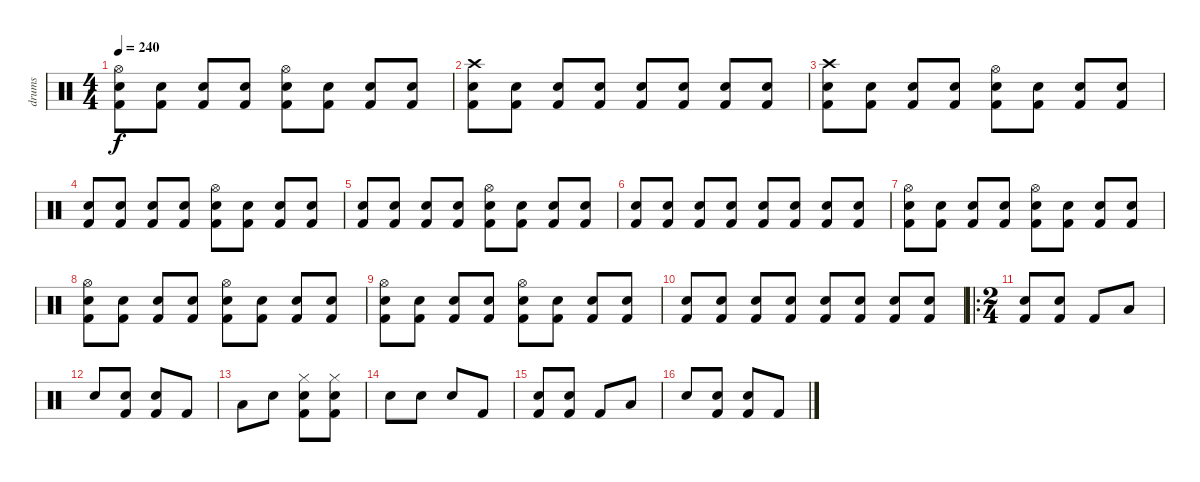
\track ("drums" "drums") {instrument percussion}
\staff {score}
\articulation defaults
\ts (4 4)
\tempo 240
\clef neutral
\ks c
("Hi-Hat (open)" "Snare (hit) 2" "Kick (hit) 2").8{dy f} ("Snare (hit) 2" "Kick (hit) 2").8 ("Snare (hit) 2" "Kick (hit) 2").8 ("Snare (hit) 2" "Kick (hit) 2").8 ("Hi-Hat (open)" "Snare (hit) 2" "Kick (hit) 2").8 ("Snare (hit) 2" "Kick (hit) 2").8 ("Snare (hit) 2" "Kick (hit) 2").8 ("Snare (hit) 2" "Kick (hit) 2").8 |
("Crash high (hit)" "Snare (hit) 2" "Kick (hit) 2").8 ("Electric Snare (hit)" "Kick (hit) 2").8 ("Electric Snare (hit)" "Kick (hit) 2").8 ("Electric Snare (hit)" "Kick (hit) 2").8 ("Electric Snare (hit)" "Kick (hit) 2").8 ("Electric Snare (hit)" "Kick (hit) 2").8 ("Electric Snare (hit)" "Kick (hit) 2").8 ("Electric Snare (hit)" "Kick (hit) 2").8 |
("Crash high (hit)" "Snare (hit) 2" "Kick (hit) 2").8 ("Snare (hit) 2" "Kick (hit) 2").8 ("Snare (hit) 2" "Kick (hit) 2").8 ("Snare (hit) 2" "Kick (hit) 2").8 ("Hi-Hat (open)" "Snare (hit) 2" "Kick (hit) 2").8 ("Snare (hit) 2" "Kick (hit) 2").8 ("Snare (hit) 2" "Kick (hit) 2").8 ("Snare (hit) 2" "Kick (hit) 2").8 |
("Snare (hit) 2" "Kick (hit) 2").8 ("Snare (hit) 2" "Kick (hit) 2").8 ("Snare (hit) 2" "Kick (hit) 2").8 ("Snare (hit) 2" "Kick (hit) 2").8 ("Hi-Hat (open)" "Snare (hit) 2" "Kick (hit) 2").8 ("Snare (hit) 2" "Kick (hit) 2").8 ("Snare (hit) 2" "Kick (hit) 2").8 ("Snare (hit) 2" "Kick (hit) 2").8 |
("Snare (hit) 2" "Kick (hit) 2").8 ("Snare (hit) 2" "Kick (hit) 2").8 ("Snare (hit) 2" "Kick (hit) 2").8 ("Snare (hit) 2" "Kick (hit) 2").8 ("Hi-Hat (open)" "Snare (hit) 2" "Kick (hit) 2").8 ("Snare (hit) 2" "Kick (hit) 2").8 ("Snare (hit) 2" "Kick (hit) 2").8 ("Snare (hit) 2" "Kick (hit) 2").8 |
("Snare (hit) 2" "Kick (hit) 2").8 ("Electric Snare (hit)" "Kick (hit) 2").8 ("Electric Snare (hit)" "Kick (hit) 2").8 ("Electric Snare (hit)" "Kick (hit) 2").8 ("Electric Snare (hit)" "Kick (hit) 2").8 ("Electric Snare (hit)" "Kick (hit) 2").8 ("Electric Snare (hit)" "Kick (hit) 2").8 ("Electric Snare (hit)" "Kick (hit) 2").8 |
("Hi-Hat (open)" "Snare (hit) 2" "Kick (hit) 2").8 ("Snare (hit) 2" "Kick (hit) 2").8 ("Snare (hit) 2" "Kick (hit) 2").8 ("Snare (hit) 2" "Kick (hit) 2").8 ("Hi-Hat (open)" "Snare (hit) 2" "Kick (hit) 2").8 ("Snare (hit) 2" "Kick (hit) 2").8 ("Snare (hit) 2" "Kick (hit) 2").8 ("Snare (hit) 2" "Kick (hit) 2").8 |
("Hi-Hat (open)" "Snare (hit) 2" "Kick (hit) 2").8 ("Snare (hit) 2" "Kick (hit) 2").8 ("Snare (hit) 2" "Kick (hit) 2").8 ("Snare (hit) 2" "Kick (hit) 2").8 ("Hi-Hat (open)" "Snare (hit) 2" "Kick (hit) 2").8 ("Snare (hit) 2" "Kick (hit) 2").8 ("Snare (hit) 2" "Kick (hit) 2").8 ("Snare (hit) 2" "Kick (hit) 2").8 |
("Hi-Hat (open)" "Snare (hit) 2" "Kick (hit) 2").8 ("Snare (hit) 2" "Kick (hit) 2").8 ("Snare (hit) 2" "Kick (hit) 2").8 ("Snare (hit) 2" "Kick (hit) 2").8 ("Hi-Hat (open)" "Snare (hit) 2" "Kick (hit) 2").8 ("Snare (hit) 2" "Kick (hit) 2").8 ("Snare (hit) 2" "Kick (hit) 2").8 ("Snare (hit) 2" "Kick (hit) 2").8 |
("Snare (hit) 2" "Kick (hit) 2").8 ("Electric Snare (hit)" "Kick (hit) 2").8 ("Electric Snare (hit)" "Kick (hit) 2").8 ("Electric Snare (hit)" "Kick (hit) 2").8 ("Electric Snare (hit)" "Kick (hit) 2").8 ("Electric Snare (hit)" "Kick (hit) 2").8 ("Electric Snare (hit)" "Kick (hit) 2").8 ("Electric Snare (hit)" "Kick (hit) 2").8 |
\ro
\ts (2 4)
("Electric Snare (hit)" "Kick (hit) 2").8 ("Electric Snare (hit)" "Kick (hit) 2").8 "Kick (hit) 2".8 "Low Tom (hit)".8 |
"Snare (hit) 2".8 ("Electric Snare (hit)" "Kick (hit) 2").8 ("Electric Snare (hit)" "Kick (hit) 2").8 "Kick (hit) 2".8 |
"Low Tom (hit)".8 "Snare (hit) 2".8 ("Hi-Hat (closed)" "Electric Snare (hit)" "Kick (hit) 2").8 ("Hi-Hat (closed)" "Electric Snare (hit)" "Kick (hit) 2").8 |
"Snare (hit) 2".8 "Electric Snare (hit)".8 "Electric Snare (hit)".8 "Kick (hit) 2".8 |
("Electric Snare (hit)" "Kick (hit) 2").8 ("Electric Snare (hit)" "Kick (hit) 2").8 "Kick (hit) 2".8 "Low Tom (hit)".8 |
"Snare (hit) 2".8 ("Electric Snare (hit)" "Kick (hit) 2").8 ("Electric Snare (hit)" "Kick (hit) 2").8 "Kick (hit) 2".8
